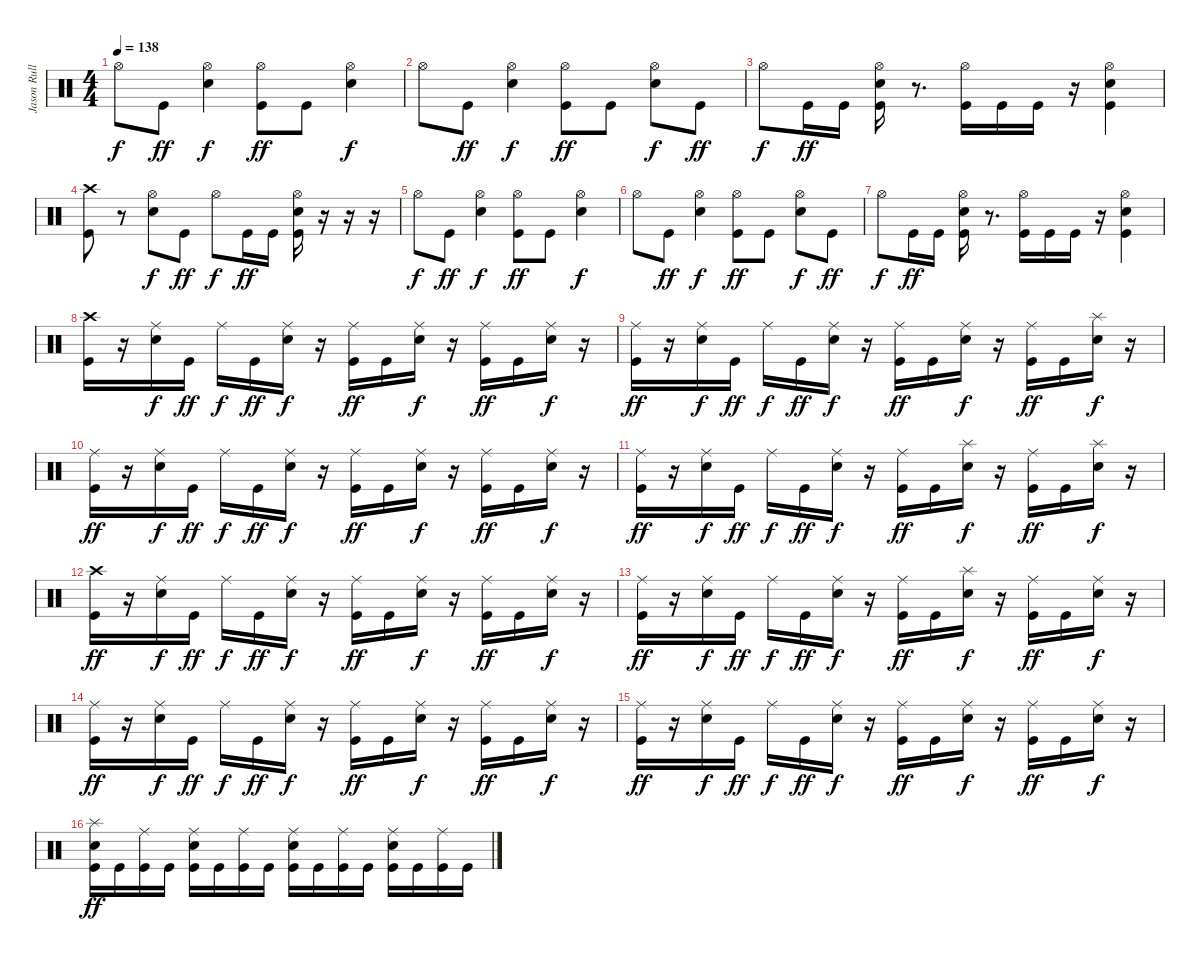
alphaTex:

\track ("Jason Rullo" "Jason Rull") {instrument percussion}
\staff {score}
\articulation defaults
\ts (4 4)
\tempo 138
\clef neutral
\ks c "Hi-Hat (open)".8{dy f} "Kick (hit)".8{dy ff}
("Snare (hit) 2" "Hi-Hat (open)").4{dy f} ("Kick (hit)" "Hi-Hat (open)").8{dy ff} "Kick (hit)".8 ("Snare (hit) 2" "Hi-Hat (open)").4{dy f} |
"Hi-Hat (open)".8 "Kick (hit)".8{dy ff} ("Snare (hit) 2" "Hi-Hat (open)").4{dy f} ("Kick (hit)" "Hi-Hat (open)").8{dy ff} "Kick (hit)".8 ("Snare (hit) 2" "Hi-Hat (open)").8{dy f} "Kick (hit)".8{dy ff} |
"Hi-Hat (open)".8{dy f} "Kick (hit)".16{dy ff} "Kick (hit)".16 ("Kick (hit)" "Snare (hit) 2" "Hi-Hat (open)").16 r.8{d} ("Kick (hit)" "Hi-Hat (open)").16 "Kick (hit)".16 "Kick (hit)".16 r.16 ("Kick (hit)" "Snare (hit) 2" "Hi-Hat (open)").4 |
("Kick (hit)" "Crash high (hit)").8 r.8 ("Snare (hit) 2" "Hi-Hat (open)").8{dy f} "Kick (hit)".8{dy ff} "Hi-Hat (open)".8{dy f} "Kick (hit)".16{dy ff} "Kick (hit)".16 ("Kick (hit)" "Snare (hit) 2" "Hi-Hat (open)").16 r.16 r.16 r.16 |
"Hi-Hat (open)".8{dy f} "Kick (hit)".8{dy ff} ("Snare (hit) 2" "Hi-Hat (open)").4{dy f} ("Kick (hit)" "Hi-Hat (open)").8{dy ff} "Kick (hit)".8 ("Snare (hit) 2" "Hi-Hat (open)").4{dy f} |
"Hi-Hat (open)".8 "Kick (hit)".8{dy ff} ("Snare (hit) 2" "Hi-Hat (open)").4{dy f} ("Kick (hit)" "Hi-Hat (open)").8{dy ff} "Kick (hit)".8 ("Snare (hit) 2" "Hi-Hat (open)").8{dy f} "Kick (hit)".8{dy ff} |
"Hi-Hat (open)".8{dy f} "Kick (hit)".16{dy ff} "Kick (hit)".16 ("Kick (hit)" "Snare (hit) 2" "Hi-Hat (open)").16 r.8{d} ("Kick (hit)" "Hi-Hat (open)").16 "Kick (hit)".16 "Kick (hit)".16 r.16 ("Kick (hit)" "Snare (hit) 2" "Hi-Hat (open)").4 |
("Kick (hit)" "Crash high (hit)").16 r.16 ("Snare (hit) 2" "Ride (middle)").16{dy f} "Kick (hit)".16{dy ff} "Ride (middle)".16{dy f} "Kick (hit)".16{dy ff} ("Snare (hit) 2" "Ride (middle)").16{dy f} r.16 ("Kick (hit)" "Ride (middle)").16{dy ff} "Kick (hit)".16 ("Snare (hit) 2" "Ride (middle)").16{dy f} r.16 ("Kick (hit)" "Ride (middle)").16{dy ff} "Kick (hit)".16 ("Snare (hit) 2" "Ride (middle)").16{dy f} r.16 |
("Kick (hit)" "Ride (middle)").16{dy ff} r.16 ("Snare (hit) 2" "Ride (middle)").16{dy f} "Kick (hit)".16{dy ff} "Ride (middle)".16{dy f} "Kick (hit)".16{dy ff} ("Snare (hit) 2" "Ride (middle)").16{dy f} r.16 ("Kick (hit)" "Ride (middle)").16{dy ff} "Kick (hit)".16 ("Snare (hit) 2" "Ride (middle)").16{dy f} r.16 ("Kick (hit)" "Ride (middle)").16{dy ff} "Kick (hit)".16 ("Snare (hit) 2" "Splash (hit)").16{dy f} r.16 |
("Kick (hit)" "Ride (middle)").16{dy ff} r.16 ("Snare (hit) 2" "Ride (middle)").16{dy f} "Kick (hit)".16{dy ff} "Ride (middle)".16{dy f} "Kick (hit)".16{dy ff} ("Snare (hit) 2" "Ride (middle)").16{dy f} r.16 ("Kick (hit)" "Ride (middle)").16{dy ff} "Kick (hit)".16 ("Snare (hit) 2" "Ride (middle)").16{dy f} r.16 ("Kick (hit)" "Ride (middle)").16{dy ff} "Kick (hit)".16 ("Snare (hit) 2" "Ride (middle)").16{dy f} r.16 |
("Kick (hit)" "Ride (middle)").16{dy ff} r.16 ("Snare (hit) 2" "Ride (middle)").16{dy f} "Kick (hit)".16{dy ff} "Ride (middle)".16{dy f} "Kick (hit)".16{dy ff} ("Snare (hit) 2" "Ride (middle)").16{dy f} r.16 ("Kick (hit)" "Ride (middle)").16{dy ff} "Kick (hit)".16 ("Snare (hit) 2" "Splash (hit)").16{dy f} r.16 ("Kick (hit)" "Ride (middle)").16{dy ff} "Kick (hit)".16 ("Snare (hit) 2" "Splash (hit)").16{dy f} r.16 |
("Kick (hit)" "Crash high (hit)").16{dy ff} r.16 ("Snare (hit) 2" "Ride (middle)").16{dy f} "Kick (hit)".16{dy ff} "Ride (middle)".16{dy f} "Kick (hit)".16{dy ff} ("Snare (hit) 2" "Ride (middle)").16{dy f} r.16 ("Kick (hit)" "Ride (middle)").16{dy ff} "Kick (hit)".16 ("Snare (hit) 2" "Ride (middle)").16{dy f} r.16 ("Kick (hit)" "Ride (middle)").16{dy ff} "Kick (hit)".16 ("Snare (hit) 2" "Ride (middle)").16{dy f} r.16 |
("Kick (hit)" "Ride (middle)").16{dy ff} r.16 ("Snare (hit) 2" "Ride (middle)").16{dy f} "Kick (hit)".16{dy ff} "Ride (middle)".16{dy f} "Kick (hit)".16{dy ff} ("Snare (hit) 2" "Ride (middle)").16{dy f} r.16 ("Kick (hit)" "Ride (middle)").16{dy ff} "Kick (hit)".16 ("Snare (hit) 2" "Splash (hit)").16{dy f} r.16 ("Kick (hit)" "Ride (middle)").16{dy ff} "Kick (hit)".16 ("Snare (hit) 2" "Ride (middle)").16{dy f} r.16 |
("Kick (hit)" "Ride (middle)").16{dy ff} r.16 ("Snare (hit) 2" "Ride (middle)").16{dy f} "Kick (hit)".16{dy ff} "Ride (middle)".16{dy f} "Kick (hit)".16{dy ff} ("Snare (hit) 2" "Ride (middle)").16{dy f} r.16 ("Kick (hit)" "Ride (middle)").16{dy ff} "Kick (hit)".16 ("Snare (hit) 2" "Ride (middle)").16{dy f} r.16 ("Kick (hit)" "Ride (middle)").16{dy ff} "Kick (hit)".16 ("Snare (hit) 2" "Ride (middle)").16{dy f} r.16 |
("Kick (hit)" "Ride (middle)").16{dy ff} r.16 ("Snare (hit) 2" "Ride (middle)").16{dy f} "Kick (hit)".16{dy ff} "Ride (middle)".16{dy f} "Kick (hit)".16{dy ff} ("Snare (hit) 2" "Ride (middle)").16{dy f} r.16 ("Kick (hit)" "Ride (middle)").16{dy ff} "Kick (hit)".16 ("Snare (hit) 2" "Ride (middle)").16{dy f} r.16 ("Kick (hit)" "Ride (middle)").16{dy ff} "Kick (hit)".16 ("Snare (hit) 2" "Ride (middle)").16{dy f} r.16 |
("Kick (hit)" "Snare (hit) 2" "Splash (hit)").16{dy ff} "Kick (hit)".16 ("Kick (hit)" "Ride (middle)").16 "Kick (hit)".16 ("Kick (hit)" "Snare (hit) 2" "Ride (middle)").16 "Kick (hit)".16 ("Kick (hit)" "Ride (middle)").16 "Kick (hit)".16 ("Kick (hit)" "Snare (hit) 2" "Ride (middle)").16 "Kick (hit)".16 ("Kick (hit)" "Ride (middle)").16 "Kick (hit)".16 ("Kick (hit)" "Snare (hit) 2" "Ride (middle)").16 "Kick (hit)".16 ("Kick (hit)" "Ride (middle)").16 "Kick (hit)".16
